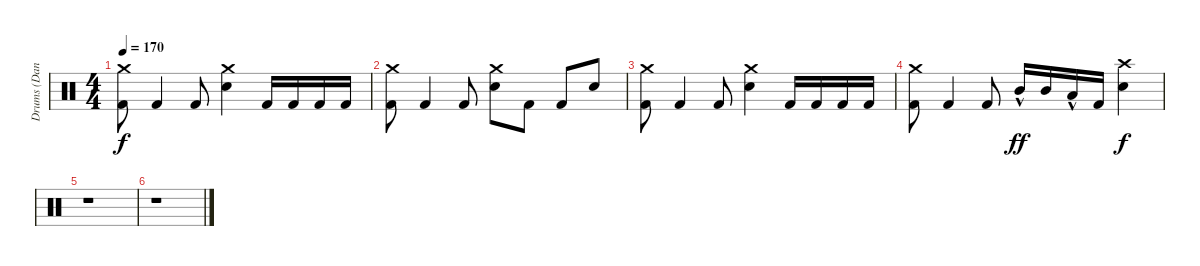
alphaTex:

\track ("Drums (Dan Trapp)" "Drums (Dan") {instrument percussion}
\staff {score}
\articulation defaults
\ts (4 4)
\tempo 170
\clef neutral
\ks c
("Kick (hit) 2" "Crash medium (hit)").8{dy f} "Kick (hit) 2".4 "Kick (hit) 2".8 ("Snare (hit) 2" "Crash medium (hit)").4 "Kick (hit) 2".16 "Kick (hit) 2".16 "Kick (hit) 2".16 "Kick (hit) 2".16 |
("Kick (hit) 2" "Crash medium (hit)").8 "Kick (hit) 2".4 "Kick (hit) 2".8 ("Snare (hit) 2" "Crash medium (hit)").8 "Kick (hit) 2".8 "Kick (hit) 2".8 "Snare (hit) 2".8 |
("Kick (hit) 2" "Crash medium (hit)").8 "Kick (hit) 2".4 "Kick (hit) 2".8 ("Snare (hit) 2" "Crash medium (hit)").4 "Kick (hit) 2".16 "Kick (hit) 2".16 "Kick (hit) 2".16 "Kick (hit) 2".16 |
("Kick (hit) 2" "Crash medium (hit)").8 "Kick (hit) 2".4 "Kick (hit) 2".8 "Mid Tom (hit)"{hac}.16{dy ff} "Mid Tom (hit)".16 "Low Tom (hit)"{hac}.16 "Kick (hit) 2".16 ("Snare (hit) 2" "Crash high (hit)").4{dy f} |
r.1 |
r.1{volume 0}
